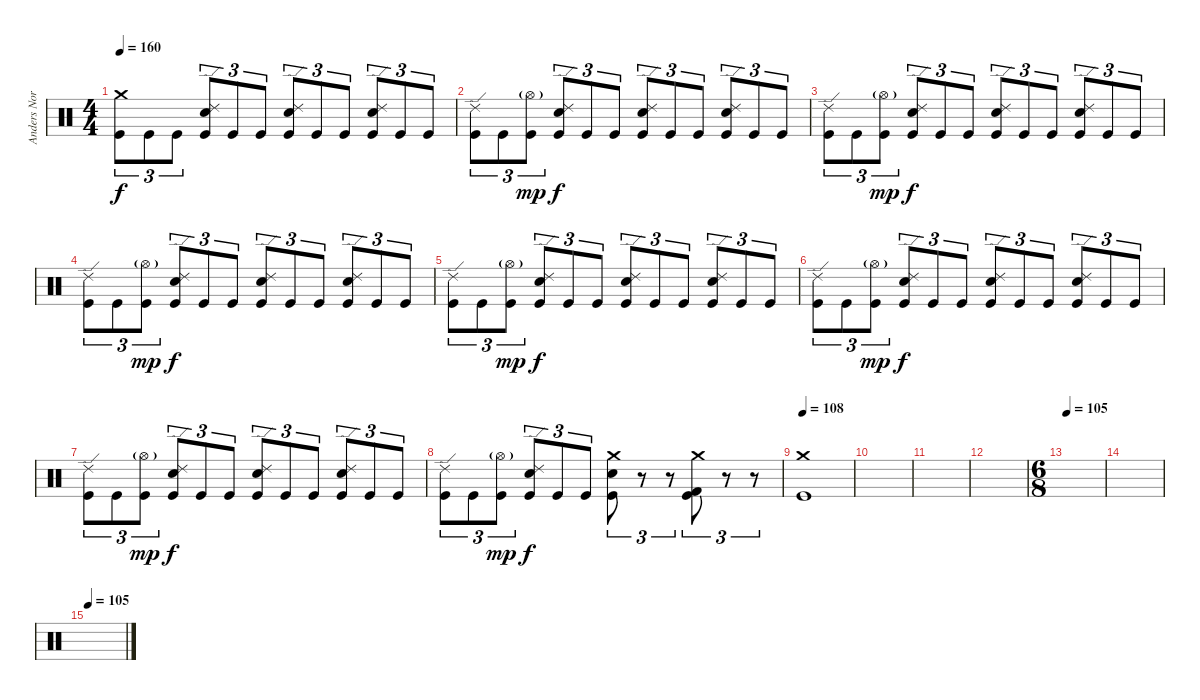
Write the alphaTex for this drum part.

\track ("Anders Nordin" "Anders Nor") {instrument percussion}
\staff {score}
\articulation defaults
\ts (4 4)
\tempo 160
\clef neutral
\ks c
("Crash medium (hit)" "Kick (hit)").8{tu (3 2) dy f} "Kick (hit)".8{tu (3 2)} "Kick (hit)".8{tu (3 2)} ("Ride (edge) 2" "Electric Snare (hit)" "Kick (hit)").8{tu (3 2)} "Kick (hit)".8{tu (3 2)} "Kick (hit)".8{tu (3 2)} ("Ride (edge) 2" "Electric Snare (hit)" "Kick (hit)").8{tu (3 2)} "Kick (hit)".8{tu (3 2)} "Kick (hit)".8{tu (3 2)} ("Ride (edge) 2" "Electric Snare (hit)" "Kick (hit)").8{tu (3 2)} "Kick (hit)".8{tu (3 2)} "Kick (hit)".8{tu (3 2)} |
("Ride (edge) 2" "Kick (hit)").8{tu (3 2)} "Kick (hit)".8{tu (3 2)} ("Hi-Hat (open)"{g} "Kick (hit)").8{tu (3 2) dy mp} ("Ride (edge) 2" "Electric Snare (hit)" "Kick (hit)").8{tu (3 2) dy f} "Kick (hit)".8{tu (3 2)} "Kick (hit)".8{tu (3 2)} ("Ride (edge) 2" "Electric Snare (hit)" "Kick (hit)").8{tu (3 2)} "Kick (hit)".8{tu (3 2)} "Kick (hit)".8{tu (3 2)} ("Ride (edge) 2" "Electric Snare (hit)" "Kick (hit)").8{tu (3 2)} "Kick (hit)".8{tu (3 2)} "Kick (hit)".8{tu (3 2)} |
("Ride (edge) 2" "Kick (hit)").8{tu (3 2)} "Kick (hit)".8{tu (3 2)} ("Hi-Hat (open)"{g} "Kick (hit)").8{tu (3 2) dy mp} ("Ride (edge) 2" "Electric Snare (hit)" "Kick (hit)").8{tu (3 2) dy f} "Kick (hit)".8{tu (3 2)} "Kick (hit)".8{tu (3 2)} ("Ride (edge) 2" "Electric Snare (hit)" "Kick (hit)").8{tu (3 2)} "Kick (hit)".8{tu (3 2)} "Kick (hit)".8{tu (3 2)} ("Ride (edge) 2" "Electric Snare (hit)" "Kick (hit)").8{tu (3 2)} "Kick (hit)".8{tu (3 2)} "Kick (hit)".8{tu (3 2)} |
("Ride (edge) 2" "Kick (hit)").8{tu (3 2)} "Kick (hit)".8{tu (3 2)} ("Hi-Hat (open)"{g} "Kick (hit)").8{tu (3 2) dy mp} ("Ride (edge) 2" "Electric Snare (hit)" "Kick (hit)").8{tu (3 2) dy f} "Kick (hit)".8{tu (3 2)} "Kick (hit)".8{tu (3 2)} ("Ride (edge) 2" "Electric Snare (hit)" "Kick (hit)").8{tu (3 2)} "Kick (hit)".8{tu (3 2)} "Kick (hit)".8{tu (3 2)} ("Ride (edge) 2" "Electric Snare (hit)" "Kick (hit)").8{tu (3 2)} "Kick (hit)".8{tu (3 2)} "Kick (hit)".8{tu (3 2)} |
("Ride (edge) 2" "Kick (hit)").8{tu (3 2)} "Kick (hit)".8{tu (3 2)} ("Hi-Hat (open)"{g} "Kick (hit)").8{tu (3 2) dy mp} ("Ride (edge) 2" "Electric Snare (hit)" "Kick (hit)").8{tu (3 2) dy f} "Kick (hit)".8{tu (3 2)} "Kick (hit)".8{tu (3 2)} ("Ride (edge) 2" "Electric Snare (hit)" "Kick (hit)").8{tu (3 2)} "Kick (hit)".8{tu (3 2)} "Kick (hit)".8{tu (3 2)} ("Ride (edge) 2" "Electric Snare (hit)" "Kick (hit)").8{tu (3 2)} "Kick (hit)".8{tu (3 2)} "Kick (hit)".8{tu (3 2)} |
("Ride (edge) 2" "Kick (hit)").8{tu (3 2)} "Kick (hit)".8{tu (3 2)} ("Hi-Hat (open)"{g} "Kick (hit)").8{tu (3 2) dy mp} ("Ride (edge) 2" "Electric Snare (hit)" "Kick (hit)").8{tu (3 2) dy f} "Kick (hit)".8{tu (3 2)} "Kick (hit)".8{tu (3 2)} ("Ride (edge) 2" "Electric Snare (hit)" "Kick (hit)").8{tu (3 2)} "Kick (hit)".8{tu (3 2)} "Kick (hit)".8{tu (3 2)} ("Ride (edge) 2" "Electric Snare (hit)" "Kick (hit)").8{tu (3 2)} "Kick (hit)".8{tu (3 2)} "Kick (hit)".8{tu (3 2)} |
("Ride (edge) 2" "Kick (hit)").8{tu (3 2)} "Kick (hit)".8{tu (3 2)} ("Hi-Hat (open)"{g} "Kick (hit)").8{tu (3 2) dy mp} ("Ride (edge) 2" "Electric Snare (hit)" "Kick (hit)").8{tu (3 2) dy f} "Kick (hit)".8{tu (3 2)} "Kick (hit)".8{tu (3 2)} ("Ride (edge) 2" "Electric Snare (hit)" "Kick (hit)").8{tu (3 2)} "Kick (hit)".8{tu (3 2)} "Kick (hit)".8{tu (3 2)} ("Ride (edge) 2" "Electric Snare (hit)" "Kick (hit)").8{tu (3 2)} "Kick (hit)".8{tu (3 2)} "Kick (hit)".8{tu (3 2)} |
("Ride (edge) 2" "Kick (hit)").8{tu (3 2)} "Kick (hit)".8{tu (3 2)} ("Hi-Hat (open)"{g} "Kick (hit)").8{tu (3 2) dy mp} ("Ride (edge) 2" "Electric Snare (hit)" "Kick (hit)").8{tu (3 2) dy f} "Kick (hit)".8{tu (3 2)} "Kick (hit)".8{tu (3 2)} ("Crash medium (hit)" "Electric Snare (hit)" "Kick (hit)").8{tu (3 2)} r.8{tu (3 2)} r.8{tu (3 2)} ("Crash medium (hit)" "Kick (hit) 2" "Kick (hit)").8{tu (3 2)} r.8{tu (3 2)} r.8{tu (3 2)} |
\tempo 108
("Crash medium (hit)" "Kick (hit)").1 |
|
|
|
\ts (6 8)
\tempo 105
|
|
\tempo 105
